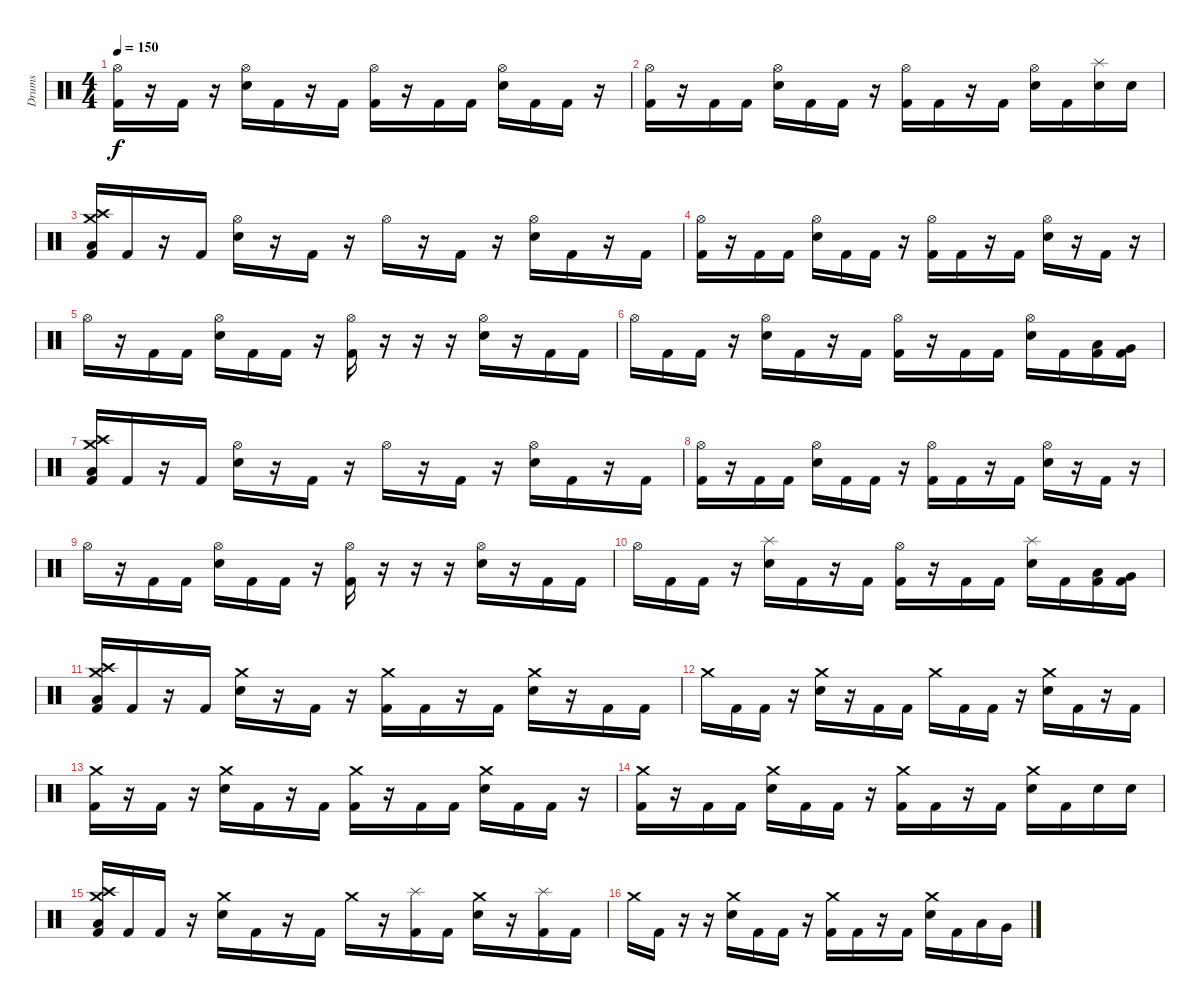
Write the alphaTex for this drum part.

\track ("Drums" "Drums") {instrument percussion}
\staff {score}
\articulation defaults
\ts (4 4)
\tempo 150
\clef neutral
\ks c
("Hi-Hat (open)" "Kick (hit) 2").16{dy f} r.16 "Kick (hit) 2".16 r.16 ("Hi-Hat (open)" "Electric Snare (hit)").16 "Kick (hit) 2".16 r.16 "Kick (hit) 2".16 ("Hi-Hat (open)" "Kick (hit) 2").16 r.16 "Kick (hit) 2".16 "Kick (hit) 2".16 ("Hi-Hat (open)" "Electric Snare (hit)").16 "Kick (hit) 2".16 "Kick (hit) 2".16 r.16 |
("Hi-Hat (open)" "Kick (hit) 2").16 r.16 "Kick (hit) 2".16 "Kick (hit) 2".16 ("Hi-Hat (open)" "Electric Snare (hit)").16 "Kick (hit) 2".16 "Kick (hit) 2".16 r.16 ("Hi-Hat (open)" "Kick (hit) 2").16 "Kick (hit) 2".16 r.16 "Kick (hit) 2".16 ("Hi-Hat (open)" "Electric Snare (hit)").16 "Kick (hit) 2".16 ("Splash (hit)" "Electric Snare (hit)").16 "Electric Snare (hit)".16 |
("Crash high (hit)" "Crash medium (hit)" "Low Floor Tom (hit)" "Kick (hit) 2").16 "Kick (hit) 2".16 r.16 "Kick (hit) 2".16 ("Hi-Hat (open)" "Electric Snare (hit)").16 r.16 "Kick (hit) 2".16 r.16 "Hi-Hat (open)".16 r.16 "Kick (hit) 2".16 r.16 ("Hi-Hat (open)" "Electric Snare (hit)").16 "Kick (hit) 2".16 r.16 "Kick (hit) 2".16 |
("Hi-Hat (open)" "Kick (hit) 2").16 r.16 "Kick (hit) 2".16 "Kick (hit) 2".16 ("Hi-Hat (open)" "Electric Snare (hit)").16 "Kick (hit) 2".16 "Kick (hit) 2".16 r.16 ("Hi-Hat (open)" "Kick (hit) 2").16 "Kick (hit) 2".16 r.16 "Kick (hit) 2".16 ("Hi-Hat (open)" "Electric Snare (hit)").16 r.16 "Kick (hit) 2".16 r.16 |
"Hi-Hat (open)".16 r.16 "Kick (hit) 2".16 "Kick (hit) 2".16 ("Hi-Hat (open)" "Electric Snare (hit)").16 "Kick (hit) 2".16 "Kick (hit) 2".16 r.16 ("Hi-Hat (open)" "Kick (hit) 2").16 r.16 r.16 r.16 ("Hi-Hat (open)" "Electric Snare (hit)").16 r.16 "Kick (hit) 2".16 "Kick (hit) 2".16 |
"Hi-Hat (open)".16 "Kick (hit) 2".16 "Kick (hit) 2".16 r.16 ("Hi-Hat (open)" "Electric Snare (hit)").16 "Kick (hit) 2".16 r.16 "Kick (hit) 2".16 ("Hi-Hat (open)" "Kick (hit) 2").16 r.16 "Kick (hit) 2".16 "Kick (hit) 2".16 ("Hi-Hat (open)" "Electric Snare (hit)").16 "Kick (hit) 2".16 ("Low Tom (hit)" "Kick (hit) 2").16 ("Very Low Tom (hit)" "Kick (hit) 2").16 |
("Crash high (hit)" "Crash medium (hit)" "Low Floor Tom (hit)" "Kick (hit) 2").16 "Kick (hit) 2".16 r.16 "Kick (hit) 2".16 ("Hi-Hat (open)" "Electric Snare (hit)").16 r.16 "Kick (hit) 2".16 r.16 "Hi-Hat (open)".16 r.16 "Kick (hit) 2".16 r.16 ("Hi-Hat (open)" "Electric Snare (hit)").16 "Kick (hit) 2".16 r.16 "Kick (hit) 2".16 |
("Hi-Hat (open)" "Kick (hit) 2").16 r.16 "Kick (hit) 2".16 "Kick (hit) 2".16 ("Hi-Hat (open)" "Electric Snare (hit)").16 "Kick (hit) 2".16 "Kick (hit) 2".16 r.16 ("Hi-Hat (open)" "Kick (hit) 2").16 "Kick (hit) 2".16 r.16 "Kick (hit) 2".16 ("Hi-Hat (open)" "Electric Snare (hit)").16 r.16 "Kick (hit) 2".16 r.16 |
"Hi-Hat (open)".16 r.16 "Kick (hit) 2".16 "Kick (hit) 2".16 ("Hi-Hat (open)" "Electric Snare (hit)").16 "Kick (hit) 2".16 "Kick (hit) 2".16 r.16 ("Hi-Hat (open)" "Kick (hit) 2").16 r.16 r.16 r.16 ("Hi-Hat (open)" "Electric Snare (hit)").16 r.16 "Kick (hit) 2".16 "Kick (hit) 2".16 |
"Hi-Hat (open)".16 "Kick (hit) 2".16 "Kick (hit) 2".16 r.16 ("Splash (hit)" "Electric Snare (hit)").16 "Kick (hit) 2".16 r.16 "Kick (hit) 2".16 ("Hi-Hat (open)" "Kick (hit) 2").16 r.16 "Kick (hit) 2".16 "Kick (hit) 2".16 ("Splash (hit)" "Electric Snare (hit)").16 "Kick (hit) 2".16 ("Low Tom (hit)" "Kick (hit) 2").16 ("Very Low Tom (hit)" "Kick (hit) 2").16 |
("Crash high (hit)" "Crash medium (hit)" "Low Floor Tom (hit)" "Kick (hit) 2").16 "Kick (hit) 2".16 r.16 "Kick (hit) 2".16 ("Crash medium (hit)" "Electric Snare (hit)").16 r.16 "Kick (hit) 2".16 r.16 ("Crash medium (hit)" "Kick (hit) 2").16 "Kick (hit) 2".16 r.16 "Kick (hit) 2".16 ("Crash medium (hit)" "Electric Snare (hit)").16 r.16 "Kick (hit) 2".16 "Kick (hit) 2".16 |
"Crash medium (hit)".16 "Kick (hit) 2".16 "Kick (hit) 2".16 r.16 ("Crash medium (hit)" "Electric Snare (hit)").16 r.16 "Kick (hit) 2".16 "Kick (hit) 2".16 "Crash medium (hit)".16 "Kick (hit) 2".16 "Kick (hit) 2".16 r.16 ("Crash medium (hit)" "Electric Snare (hit)").16 "Kick (hit) 2".16 r.16 "Kick (hit) 2".16 |
("Crash medium (hit)" "Kick (hit) 2").16 r.16 "Kick (hit) 2".16 r.16 ("Crash medium (hit)" "Electric Snare (hit)").16 "Kick (hit) 2".16 r.16 "Kick (hit) 2".16 ("Crash medium (hit)" "Kick (hit) 2").16 r.16 "Kick (hit) 2".16 "Kick (hit) 2".16 ("Crash medium (hit)" "Electric Snare (hit)").16 "Kick (hit) 2".16 "Kick (hit) 2".16 r.16 |
("Crash medium (hit)" "Kick (hit) 2").16 r.16 "Kick (hit) 2".16 "Kick (hit) 2".16 ("Crash medium (hit)" "Electric Snare (hit)").16 "Kick (hit) 2".16 "Kick (hit) 2".16 r.16 ("Crash medium (hit)" "Kick (hit) 2").16 "Kick (hit) 2".16 r.16 "Kick (hit) 2".16 ("Crash medium (hit)" "Electric Snare (hit)").16 "Kick (hit) 2".16 "Electric Snare (hit)".16 "Electric Snare (hit)".16 |
("Crash high (hit)" "Crash medium (hit)" "Low Floor Tom (hit)" "Kick (hit) 2").16 "Kick (hit) 2".16 "Kick (hit) 2".16 r.16 ("Crash medium (hit)" "Electric Snare (hit)").16 "Kick (hit) 2".16 r.16 "Kick (hit) 2".16 "Crash medium (hit)".16 r.16 ("Splash (hit)" "Kick (hit) 2").16 "Kick (hit) 2".16 ("Crash medium (hit)" "Electric Snare (hit)").16 r.16 ("Splash (hit)" "Kick (hit) 2").16 "Kick (hit) 2".16 |
"Crash medium (hit)".16 "Kick (hit) 2".16 r.16 r.16 ("Crash medium (hit)" "Electric Snare (hit)").16 "Kick (hit) 2".16 "Kick (hit) 2".16 r.16 ("Crash medium (hit)" "Kick (hit) 2").16 "Kick (hit) 2".16 r.16 "Kick (hit) 2".16 ("Crash medium (hit)" "Electric Snare (hit)").16 "Kick (hit) 2".16 "Low Tom (hit)".16 "Very Low Tom (hit)".16
